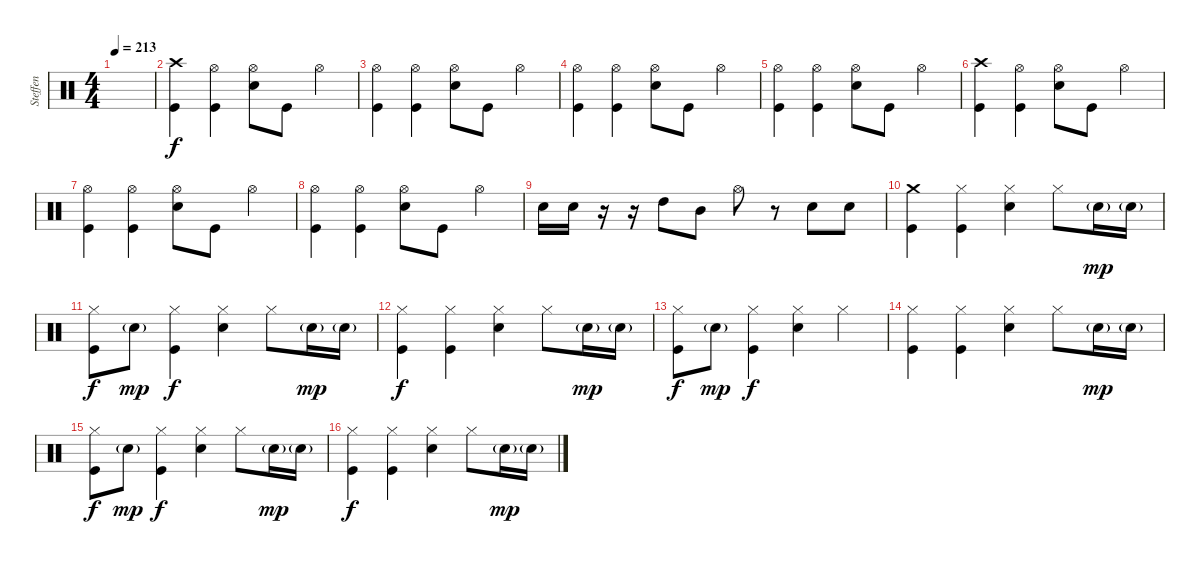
\track ("Steffen" "Steffen") {instrument percussion}
\staff {score}
\articulation defaults
\ts (4 4)
\tempo 213
\clef neutral
\ks c
|
("Crash high (hit)" "Kick (hit)").4 ("Hi-Hat (open)" "Kick (hit)").4 ("Hi-Hat (open)" "Snare (hit) 2").8 "Kick (hit)".8 "Hi-Hat (open)".4 |
("Hi-Hat (open)" "Kick (hit)").4 ("Hi-Hat (open)" "Kick (hit)").4 ("Hi-Hat (open)" "Snare (hit) 2").8 "Kick (hit)".8 "Hi-Hat (open)".4 |
("Hi-Hat (open)" "Kick (hit)").4 ("Hi-Hat (open)" "Kick (hit)").4 ("Hi-Hat (open)" "Snare (hit) 2").8 "Kick (hit)".8 "Hi-Hat (open)".4 |
("Hi-Hat (open)" "Kick (hit)").4 ("Hi-Hat (open)" "Kick (hit)").4 ("Hi-Hat (open)" "Snare (hit) 2").8 "Kick (hit)".8 "Hi-Hat (open)".4 |
("Crash high (hit)" "Kick (hit)").4 ("Hi-Hat (open)" "Kick (hit)").4 ("Hi-Hat (open)" "Snare (hit) 2").8 "Kick (hit)".8 "Hi-Hat (open)".4 |
("Hi-Hat (open)" "Kick (hit)").4 ("Hi-Hat (open)" "Kick (hit)").4 ("Hi-Hat (open)" "Snare (hit) 2").8 "Kick (hit)".8 "Hi-Hat (open)".4 |
("Hi-Hat (open)" "Kick (hit)").4 ("Hi-Hat (open)" "Kick (hit)").4 ("Hi-Hat (open)" "Snare (hit) 2").8 "Kick (hit)".8 "Hi-Hat (open)".4 |
"Snare (hit) 2".16 "Snare (hit) 2".16 r.16 r.16 "High Tom (hit)".8 "Mid Tom (hit)".8 "Hi-Hat (open)".8 r.8 "Snare (hit) 2".8 "Snare (hit) 2".8 |
("Crash medium (hit)" "Kick (hit)").4 ("Hi-Hat (closed)" "Kick (hit)").4 ("Hi-Hat (closed)" "Snare (hit) 2").4 "Hi-Hat (closed)".8 "Snare (hit) 2"{g}.16{dy mp} "Snare (hit) 2"{g}.16 |
("Hi-Hat (closed)" "Kick (hit)").8{dy f} "Snare (hit) 2"{g}.8{dy mp} ("Hi-Hat (closed)" "Kick (hit)").4{dy f} ("Hi-Hat (closed)" "Snare (hit) 2").4 "Hi-Hat (closed)".8 "Snare (hit) 2"{g}.16{dy mp} "Snare (hit) 2"{g}.16 |
("Hi-Hat (closed)" "Kick (hit)").4{dy f} ("Hi-Hat (closed)" "Kick (hit)").4 ("Hi-Hat (closed)" "Snare (hit) 2").4 "Hi-Hat (closed)".8 "Snare (hit) 2"{g}.16{dy mp} "Snare (hit) 2"{g}.16 |
("Hi-Hat (closed)" "Kick (hit)").8{dy f} "Snare (hit) 2"{g}.8{dy mp} ("Hi-Hat (closed)" "Kick (hit)").4{dy f} ("Hi-Hat (closed)" "Snare (hit) 2").4 "Hi-Hat (closed)".4 |
("Hi-Hat (closed)" "Kick (hit)").4 ("Hi-Hat (closed)" "Kick (hit)").4 ("Hi-Hat (closed)" "Snare (hit) 2").4 "Hi-Hat (closed)".8 "Snare (hit) 2"{g}.16{dy mp} "Snare (hit) 2"{g}.16 |
("Hi-Hat (closed)" "Kick (hit)").8{dy f} "Snare (hit) 2"{g}.8{dy mp} ("Hi-Hat (closed)" "Kick (hit)").4{dy f} ("Hi-Hat (closed)" "Snare (hit) 2").4 "Hi-Hat (closed)".8 "Snare (hit) 2"{g}.16{dy mp} "Snare (hit) 2"{g}.16 |
("Hi-Hat (closed)" "Kick (hit)").4{dy f} ("Hi-Hat (closed)" "Kick (hit)").4 ("Hi-Hat (closed)" "Snare (hit) 2").4 "Hi-Hat (closed)".8 "Snare (hit) 2"{g}.16{dy mp} "Snare (hit) 2"{g}.16
